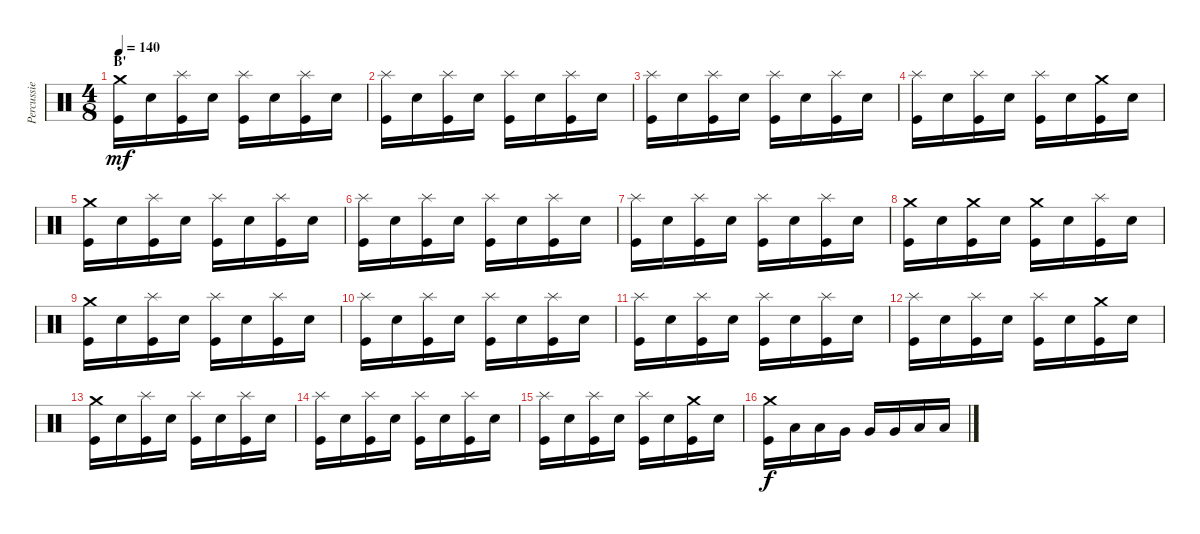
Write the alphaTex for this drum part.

\track ("Percussie" "Percussie") {instrument percussion}
\staff {score}
\articulation defaults
\ts (4 8)
\section ("" "B'")
\tempo 140
\clef neutral
\ks c
("Crash medium (hit)" "Kick (hit)").16{dy mf} "Electric Snare (hit)".16 ("Splash (hit)" "Kick (hit)").16 "Electric Snare (hit)".16 ("Splash (hit)" "Kick (hit)").16 "Electric Snare (hit)".16 ("Splash (hit)" "Kick (hit)").16 "Electric Snare (hit)".16 |
("Splash (hit)" "Kick (hit)").16 "Electric Snare (hit)".16 ("Splash (hit)" "Kick (hit)").16 "Electric Snare (hit)".16 ("Splash (hit)" "Kick (hit)").16 "Electric Snare (hit)".16 ("Splash (hit)" "Kick (hit)").16 "Electric Snare (hit)".16 |
("Splash (hit)" "Kick (hit)").16 "Electric Snare (hit)".16 ("Splash (hit)" "Kick (hit)").16 "Electric Snare (hit)".16 ("Splash (hit)" "Kick (hit)").16 "Electric Snare (hit)".16 ("Splash (hit)" "Kick (hit)").16 "Electric Snare (hit)".16 |
("Splash (hit)" "Kick (hit)").16 "Electric Snare (hit)".16 ("Splash (hit)" "Kick (hit)").16 "Electric Snare (hit)".16 ("Splash (hit)" "Kick (hit)").16 "Electric Snare (hit)".16 ("Crash medium (hit)" "Kick (hit)").16 "Electric Snare (hit)".16 |
("Crash medium (hit)" "Kick (hit)").16 "Electric Snare (hit)".16 ("Splash (hit)" "Kick (hit)").16 "Electric Snare (hit)".16 ("Splash (hit)" "Kick (hit)").16 "Electric Snare (hit)".16 ("Splash (hit)" "Kick (hit)").16 "Electric Snare (hit)".16 |
("Splash (hit)" "Kick (hit)").16 "Electric Snare (hit)".16 ("Splash (hit)" "Kick (hit)").16 "Electric Snare (hit)".16 ("Splash (hit)" "Kick (hit)").16 "Electric Snare (hit)".16 ("Splash (hit)" "Kick (hit)").16 "Electric Snare (hit)".16 |
("Splash (hit)" "Kick (hit)").16 "Electric Snare (hit)".16 ("Splash (hit)" "Kick (hit)").16 "Electric Snare (hit)".16 ("Splash (hit)" "Kick (hit)").16 "Electric Snare (hit)".16 ("Splash (hit)" "Kick (hit)").16 "Electric Snare (hit)".16 |
("Crash medium (hit)" "Kick (hit)").16 "Electric Snare (hit)".16 ("Crash medium (hit)" "Kick (hit)").16 "Electric Snare (hit)".16 ("Crash medium (hit)" "Kick (hit)").16 "Electric Snare (hit)".16 ("Splash (hit)" "Kick (hit)").16 "Electric Snare (hit)".16 |
("Crash medium (hit)" "Kick (hit)").16 "Electric Snare (hit)".16 ("Splash (hit)" "Kick (hit)").16 "Electric Snare (hit)".16 ("Splash (hit)" "Kick (hit)").16 "Electric Snare (hit)".16 ("Splash (hit)" "Kick (hit)").16 "Electric Snare (hit)".16 |
("Splash (hit)" "Kick (hit)").16 "Electric Snare (hit)".16 ("Splash (hit)" "Kick (hit)").16 "Electric Snare (hit)".16 ("Splash (hit)" "Kick (hit)").16 "Electric Snare (hit)".16 ("Splash (hit)" "Kick (hit)").16 "Electric Snare (hit)".16 |
("Splash (hit)" "Kick (hit)").16 "Electric Snare (hit)".16 ("Splash (hit)" "Kick (hit)").16 "Electric Snare (hit)".16 ("Splash (hit)" "Kick (hit)").16 "Electric Snare (hit)".16 ("Splash (hit)" "Kick (hit)").16 "Electric Snare (hit)".16 |
("Splash (hit)" "Kick (hit)").16 "Electric Snare (hit)".16 ("Splash (hit)" "Kick (hit)").16 "Electric Snare (hit)".16 ("Splash (hit)" "Kick (hit)").16 "Electric Snare (hit)".16 ("Crash medium (hit)" "Kick (hit)").16 "Electric Snare (hit)".16 |
("Crash medium (hit)" "Kick (hit)").16 "Electric Snare (hit)".16 ("Splash (hit)" "Kick (hit)").16 "Electric Snare (hit)".16 ("Splash (hit)" "Kick (hit)").16 "Electric Snare (hit)".16 ("Splash (hit)" "Kick (hit)").16 "Electric Snare (hit)".16 |
("Splash (hit)" "Kick (hit)").16 "Electric Snare (hit)".16 ("Splash (hit)" "Kick (hit)").16 "Electric Snare (hit)".16 ("Splash (hit)" "Kick (hit)").16 "Electric Snare (hit)".16 ("Splash (hit)" "Kick (hit)").16 "Electric Snare (hit)".16 |
("Splash (hit)" "Kick (hit)").16 "Electric Snare (hit)".16 ("Splash (hit)" "Kick (hit)").16 "Electric Snare (hit)".16 ("Splash (hit)" "Kick (hit)").16 "Electric Snare (hit)".16 ("Crash medium (hit)" "Kick (hit)").16 "Electric Snare (hit)".16 |
("Crash medium (hit)" "Kick (hit)").16{dy f} "Low Tom (hit)".16 "Low Tom (hit)".16 "Very Low Tom (hit)".16 "Very Low Tom (hit)".16 "Very Low Tom (hit)".16 "Low Floor Tom (hit)".16 "Low Floor Tom (hit)".16
